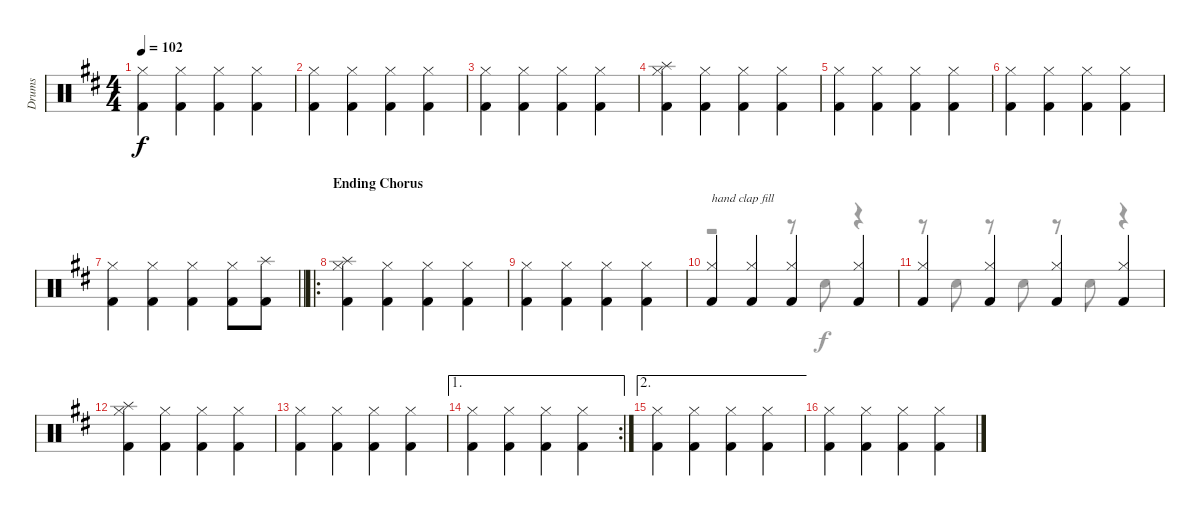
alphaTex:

\track ("Drums" "Drums") {instrument percussion}
\staff {score}
\articulation defaults
\voice
\ts (4 4)
\tempo 102
\clef neutral
\ks d
("Hi-Hat (closed)" "Kick (hit) 2").4{dy f} ("Hi-Hat (closed)" "Kick (hit) 2").4 ("Hi-Hat (closed)" "Kick (hit) 2").4 ("Hi-Hat (closed)" "Kick (hit) 2").4 |
("Hi-Hat (closed)" "Kick (hit) 2").4 ("Hi-Hat (closed)" "Kick (hit) 2").4 ("Hi-Hat (closed)" "Kick (hit) 2").4 ("Hi-Hat (closed)" "Kick (hit) 2").4 |
("Hi-Hat (closed)" "Kick (hit) 2").4 ("Hi-Hat (closed)" "Kick (hit) 2").4 ("Hi-Hat (closed)" "Kick (hit) 2").4 ("Hi-Hat (closed)" "Kick (hit) 2").4 |
("Hi-Hat (closed)" "Splash (hit)" "Kick (hit) 2").4 ("Hi-Hat (closed)" "Kick (hit) 2").4 ("Hi-Hat (closed)" "Kick (hit) 2").4 ("Hi-Hat (closed)" "Kick (hit) 2").4 |
("Hi-Hat (closed)" "Kick (hit) 2").4 ("Hi-Hat (closed)" "Kick (hit) 2").4 ("Hi-Hat (closed)" "Kick (hit) 2").4 ("Hi-Hat (closed)" "Kick (hit) 2").4 |
("Hi-Hat (closed)" "Kick (hit) 2").4 ("Hi-Hat (closed)" "Kick (hit) 2").4 ("Hi-Hat (closed)" "Kick (hit) 2").4 ("Hi-Hat (closed)" "Kick (hit) 2").4 |
\barLineRight lightlight
("Hi-Hat (closed)" "Kick (hit) 2").4 ("Hi-Hat (closed)" "Kick (hit) 2").4 ("Hi-Hat (closed)" "Kick (hit) 2").4 ("Hi-Hat (closed)" "Kick (hit) 2").8 ("Splash (hit)" "Kick (hit) 2").8 |
\ro
\section ("" "Ending Chorus")
("Hi-Hat (closed)" "Splash (hit)" "Kick (hit) 2").4 ("Hi-Hat (closed)" "Kick (hit) 2").4 ("Hi-Hat (closed)" "Kick (hit) 2").4 ("Hi-Hat (closed)" "Kick (hit) 2").4 |
("Hi-Hat (closed)" "Kick (hit) 2").4 ("Hi-Hat (closed)" "Kick (hit) 2").4 ("Hi-Hat (closed)" "Kick (hit) 2").4 ("Hi-Hat (closed)" "Kick (hit) 2").4 |
("Hi-Hat (closed)" "Kick (hit) 2").4{txt "hand clap fill"} ("Hi-Hat (closed)" "Kick (hit) 2").4 ("Hi-Hat (closed)" "Kick (hit) 2").4 ("Hi-Hat (closed)" "Kick (hit) 2").4 |
("Hi-Hat (closed)" "Kick (hit) 2").4 ("Hi-Hat (closed)" "Kick (hit) 2").4 ("Hi-Hat (closed)" "Kick (hit) 2").4 ("Hi-Hat (closed)" "Kick (hit) 2").4 |
("Hi-Hat (closed)" "Splash (hit)" "Kick (hit) 2").4 ("Hi-Hat (closed)" "Kick (hit) 2").4 ("Hi-Hat (closed)" "Kick (hit) 2").4 ("Hi-Hat (closed)" "Kick (hit) 2").4 |
("Hi-Hat (closed)" "Kick (hit) 2").4 ("Hi-Hat (closed)" "Kick (hit) 2").4 ("Hi-Hat (closed)" "Kick (hit) 2").4 ("Hi-Hat (closed)" "Kick (hit) 2").4 |
\ae 1
\rc 2
("Hi-Hat (closed)" "Kick (hit) 2").4 ("Hi-Hat (closed)" "Kick (hit) 2").4 ("Hi-Hat (closed)" "Kick (hit) 2").4 ("Hi-Hat (closed)" "Kick (hit) 2").4 |
\ae 2
("Hi-Hat (closed)" "Kick (hit) 2").4 ("Hi-Hat (closed)" "Kick (hit) 2").4 ("Hi-Hat (closed)" "Kick (hit) 2").4 ("Hi-Hat (closed)" "Kick (hit) 2").4 |
("Hi-Hat (closed)" "Kick (hit) 2").4 ("Hi-Hat (closed)" "Kick (hit) 2").4 ("Hi-Hat (closed)" "Kick (hit) 2").4 ("Hi-Hat (closed)" "Kick (hit) 2").4
\voice
\clef neutral
\ottava regular
\simile none
\ks d
|
|
|
|
|
|
\barLineRight lightlight
|
|
|
r.2 r.8 "Hand Clap (hit)".8 r.4 |
r.8 "Hand Clap (hit)".8 r.8 "Hand Clap (hit)".8 r.8 "Hand Clap (hit)".8 r.4 |
|
|
|
|
